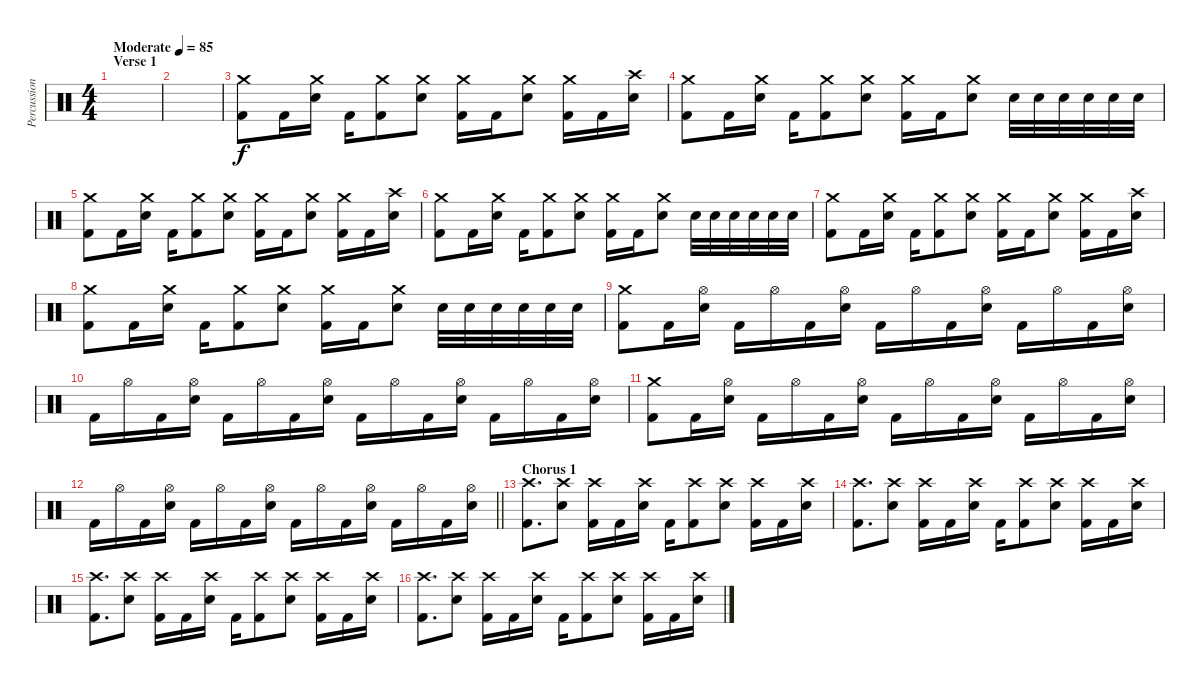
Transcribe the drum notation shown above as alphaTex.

\track ("Percussion" "Percussion") {instrument percussion}
\staff {score}
\articulation defaults
\ts (4 4)
\section ("" "Verse 1")
\tempo (85 "Moderate")
\clef neutral
\ks c
|
|
("Crash medium (hit)" "Kick (hit) 2").8 "Kick (hit) 2".16 ("Crash medium (hit)" "Electric Snare (hit)").16 "Kick (hit) 2".16 ("Crash medium (hit)" "Kick (hit) 2").8 ("Crash medium (hit)" "Electric Snare (hit)").8 ("Crash medium (hit)" "Kick (hit) 2").16 "Kick (hit) 2".16 ("Crash medium (hit)" "Electric Snare (hit)").8 ("Crash medium (hit)" "Kick (hit) 2").16 "Kick (hit) 2".16 ("Crash high (hit)" "Electric Snare (hit)").16 |
("Crash medium (hit)" "Kick (hit) 2").8 "Kick (hit) 2".16 ("Crash medium (hit)" "Electric Snare (hit)").16 "Kick (hit) 2".16 ("Crash medium (hit)" "Kick (hit) 2").8 ("Crash medium (hit)" "Electric Snare (hit)").8 ("Crash medium (hit)" "Kick (hit) 2").16 "Kick (hit) 2".16 ("Crash medium (hit)" "Electric Snare (hit)").8 "Electric Snare (hit)".32 "Electric Snare (hit)".32 "Electric Snare (hit)".32 "Electric Snare (hit)".32 "Electric Snare (hit)".32 "Electric Snare (hit)".32 |
("Crash medium (hit)" "Kick (hit) 2").8 "Kick (hit) 2".16 ("Crash medium (hit)" "Electric Snare (hit)").16 "Kick (hit) 2".16 ("Crash medium (hit)" "Kick (hit) 2").8 ("Crash medium (hit)" "Electric Snare (hit)").8 ("Crash medium (hit)" "Kick (hit) 2").16 "Kick (hit) 2".16 ("Crash medium (hit)" "Electric Snare (hit)").8 ("Crash medium (hit)" "Kick (hit) 2").16 "Kick (hit) 2".16 ("Crash high (hit)" "Electric Snare (hit)").16 |
("Crash medium (hit)" "Kick (hit) 2").8 "Kick (hit) 2".16 ("Crash medium (hit)" "Electric Snare (hit)").16 "Kick (hit) 2".16 ("Crash medium (hit)" "Kick (hit) 2").8 ("Crash medium (hit)" "Electric Snare (hit)").8 ("Crash medium (hit)" "Kick (hit) 2").16 "Kick (hit) 2".16 ("Crash medium (hit)" "Electric Snare (hit)").8 "Electric Snare (hit)".32 "Electric Snare (hit)".32 "Electric Snare (hit)".32 "Electric Snare (hit)".32 "Electric Snare (hit)".32 "Electric Snare (hit)".32 |
("Crash medium (hit)" "Kick (hit) 2").8 "Kick (hit) 2".16 ("Crash medium (hit)" "Electric Snare (hit)").16 "Kick (hit) 2".16 ("Crash medium (hit)" "Kick (hit) 2").8 ("Crash medium (hit)" "Electric Snare (hit)").8 ("Crash medium (hit)" "Kick (hit) 2").16 "Kick (hit) 2".16 ("Crash medium (hit)" "Electric Snare (hit)").8 ("Crash medium (hit)" "Kick (hit) 2").16 "Kick (hit) 2".16 ("Crash high (hit)" "Electric Snare (hit)").16 |
("Crash medium (hit)" "Kick (hit) 2").8 "Kick (hit) 2".16 ("Crash medium (hit)" "Electric Snare (hit)").16 "Kick (hit) 2".16 ("Crash medium (hit)" "Kick (hit) 2").8 ("Crash medium (hit)" "Electric Snare (hit)").8 ("Crash medium (hit)" "Kick (hit) 2").16 "Kick (hit) 2".16 ("Crash medium (hit)" "Electric Snare (hit)").8 "Electric Snare (hit)".32 "Electric Snare (hit)".32 "Electric Snare (hit)".32 "Electric Snare (hit)".32 "Electric Snare (hit)".32 "Electric Snare (hit)".32 |
("Crash medium (hit)" "Kick (hit) 2").8 "Kick (hit) 2".16 ("Hi-Hat (open)" "Electric Snare (hit)").16 "Kick (hit) 2".16 "Hi-Hat (open)".16 "Kick (hit) 2".16 ("Hi-Hat (open)" "Electric Snare (hit)").16 "Kick (hit) 2".16 "Hi-Hat (open)".16 "Kick (hit) 2".16 ("Hi-Hat (open)" "Electric Snare (hit)").16 "Kick (hit) 2".16 "Hi-Hat (open)".16 "Kick (hit) 2".16 ("Hi-Hat (open)" "Electric Snare (hit)").16 |
"Kick (hit) 2".16 "Hi-Hat (open)".16 "Kick (hit) 2".16 ("Hi-Hat (open)" "Electric Snare (hit)").16 "Kick (hit) 2".16 "Hi-Hat (open)".16 "Kick (hit) 2".16 ("Hi-Hat (open)" "Electric Snare (hit)").16 "Kick (hit) 2".16 "Hi-Hat (open)".16 "Kick (hit) 2".16 ("Hi-Hat (open)" "Electric Snare (hit)").16 "Kick (hit) 2".16 "Hi-Hat (open)".16 "Kick (hit) 2".16 ("Hi-Hat (open)" "Electric Snare (hit)").16 |
("Crash medium (hit)" "Kick (hit) 2").8 "Kick (hit) 2".16 ("Hi-Hat (open)" "Electric Snare (hit)").16 "Kick (hit) 2".16 "Hi-Hat (open)".16 "Kick (hit) 2".16 ("Hi-Hat (open)" "Electric Snare (hit)").16 "Kick (hit) 2".16 "Hi-Hat (open)".16 "Kick (hit) 2".16 ("Hi-Hat (open)" "Electric Snare (hit)").16 "Kick (hit) 2".16 "Hi-Hat (open)".16 "Kick (hit) 2".16 ("Hi-Hat (open)" "Electric Snare (hit)").16 |
\barLineRight lightlight "Kick (hit) 2".16 "Hi-Hat (open)".16 "Kick (hit) 2".16
("Hi-Hat (open)" "Electric Snare (hit)").16 "Kick (hit) 2".16 "Hi-Hat (open)".16 "Kick (hit) 2".16 ("Hi-Hat (open)" "Electric Snare (hit)").16 "Kick (hit) 2".16 "Hi-Hat (open)".16 "Kick (hit) 2".16 ("Hi-Hat (open)" "Electric Snare (hit)").16 "Kick (hit) 2".16 "Hi-Hat (open)".16 "Kick (hit) 2".16 ("Hi-Hat (open)" "Electric Snare (hit)").16 |
\section ("" "Chorus 1")
("Crash high (hit)" "Kick (hit) 2").8{d} ("Crash high (hit)" "Electric Snare (hit)").8 ("Crash high (hit)" "Kick (hit) 2").16 "Kick (hit) 2".16 ("Crash high (hit)" "Electric Snare (hit)").16 "Kick (hit) 2".16 ("Crash high (hit)" "Kick (hit) 2").8 ("Crash high (hit)" "Electric Snare (hit)").8 ("Crash high (hit)" "Kick (hit) 2").16 "Kick (hit) 2".16 ("Crash high (hit)" "Electric Snare (hit)").16 |
("Crash high (hit)" "Kick (hit) 2").8{d} ("Crash high (hit)" "Electric Snare (hit)").8 ("Crash high (hit)" "Kick (hit) 2").16 "Kick (hit) 2".16 ("Crash high (hit)" "Electric Snare (hit)").16 "Kick (hit) 2".16 ("Crash high (hit)" "Kick (hit) 2").8 ("Crash high (hit)" "Electric Snare (hit)").8 ("Crash high (hit)" "Kick (hit) 2").16 "Kick (hit) 2".16 ("Crash high (hit)" "Electric Snare (hit)").16 |
("Crash high (hit)" "Kick (hit) 2").8{d} ("Crash high (hit)" "Electric Snare (hit)").8 ("Crash high (hit)" "Kick (hit) 2").16 "Kick (hit) 2".16 ("Crash high (hit)" "Electric Snare (hit)").16 "Kick (hit) 2".16 ("Crash high (hit)" "Kick (hit) 2").8 ("Crash high (hit)" "Electric Snare (hit)").8 ("Crash high (hit)" "Kick (hit) 2").16 "Kick (hit) 2".16 ("Crash high (hit)" "Electric Snare (hit)").16 |
("Crash high (hit)" "Kick (hit) 2").8{d} ("Crash high (hit)" "Electric Snare (hit)").8 ("Crash high (hit)" "Kick (hit) 2").16 "Kick (hit) 2".16 ("Crash high (hit)" "Electric Snare (hit)").16 "Kick (hit) 2".16 ("Crash high (hit)" "Kick (hit) 2").8 ("Crash high (hit)" "Electric Snare (hit)").8 ("Crash high (hit)" "Kick (hit) 2").16 "Kick (hit) 2".16 ("Crash high (hit)" "Electric Snare (hit)").16
